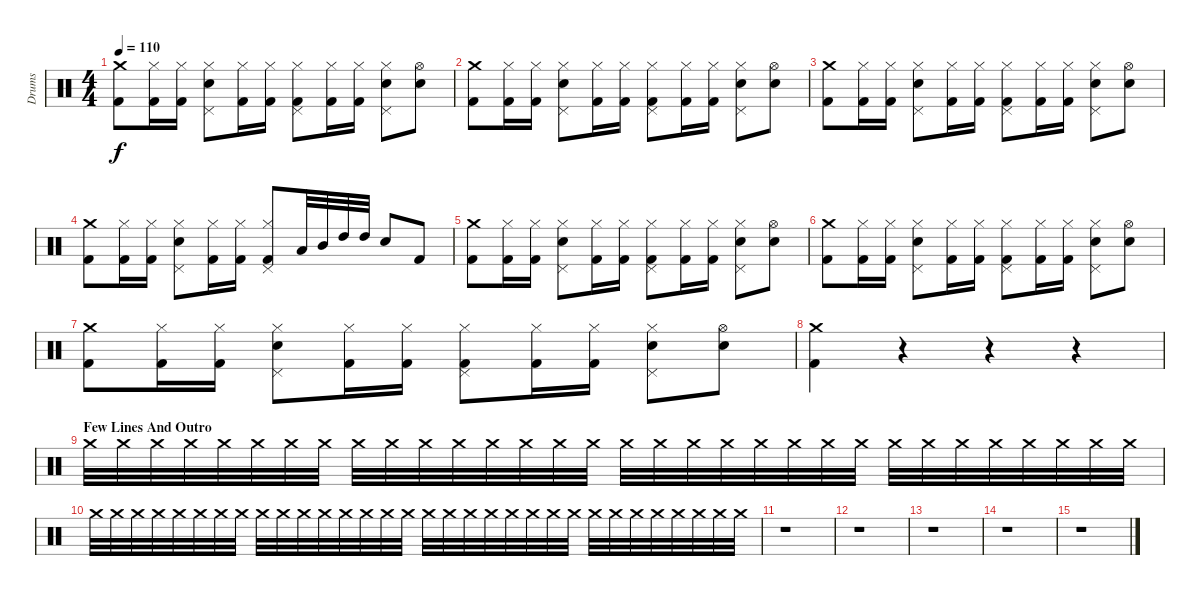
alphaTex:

\track ("Drums" "Drums") {instrument percussion}
\staff {score}
\articulation defaults
\ts (4 4)
\tempo 110
\clef neutral
\ks c
("Crash medium (hit)" "Kick (hit) 2").8{dy f} ("Kick (hit) 2" "Hi-Hat (closed)").16 ("Kick (hit) 2" "Hi-Hat (closed)").16 ("Snare (hit) 2" "Pedal Hi-Hat (hit)" "Hi-Hat (closed)").8 ("Kick (hit) 2" "Hi-Hat (closed)").16 ("Kick (hit) 2" "Hi-Hat (closed)").16 ("Kick (hit) 2" "Pedal Hi-Hat (hit)" "Hi-Hat (closed)").8 ("Kick (hit) 2" "Hi-Hat (closed)").16 ("Kick (hit) 2" "Hi-Hat (closed)").16 ("Snare (hit) 2" "Pedal Hi-Hat (hit)" "Hi-Hat (closed)").8 ("Snare (hit) 2" "Hi-Hat (open)").8 |
("Crash medium (hit)" "Kick (hit) 2").8 ("Kick (hit) 2" "Hi-Hat (closed)").16 ("Kick (hit) 2" "Hi-Hat (closed)").16 ("Snare (hit) 2" "Pedal Hi-Hat (hit)" "Hi-Hat (closed)").8 ("Kick (hit) 2" "Hi-Hat (closed)").16 ("Kick (hit) 2" "Hi-Hat (closed)").16 ("Kick (hit) 2" "Pedal Hi-Hat (hit)" "Hi-Hat (closed)").8 ("Kick (hit) 2" "Hi-Hat (closed)").16 ("Kick (hit) 2" "Hi-Hat (closed)").16 ("Snare (hit) 2" "Pedal Hi-Hat (hit)" "Hi-Hat (closed)").8 ("Snare (hit) 2" "Hi-Hat (open)").8 |
("Crash medium (hit)" "Kick (hit) 2").8 ("Kick (hit) 2" "Hi-Hat (closed)").16 ("Kick (hit) 2" "Hi-Hat (closed)").16 ("Snare (hit) 2" "Pedal Hi-Hat (hit)" "Hi-Hat (closed)").8 ("Kick (hit) 2" "Hi-Hat (closed)").16 ("Kick (hit) 2" "Hi-Hat (closed)").16 ("Kick (hit) 2" "Pedal Hi-Hat (hit)" "Hi-Hat (closed)").8 ("Kick (hit) 2" "Hi-Hat (closed)").16 ("Kick (hit) 2" "Hi-Hat (closed)").16 ("Snare (hit) 2" "Pedal Hi-Hat (hit)" "Hi-Hat (closed)").8 ("Snare (hit) 2" "Hi-Hat (open)").8 |
("Crash medium (hit)" "Kick (hit) 2").8 ("Kick (hit) 2" "Hi-Hat (closed)").16 ("Kick (hit) 2" "Hi-Hat (closed)").16 ("Snare (hit) 2" "Pedal Hi-Hat (hit)" "Hi-Hat (closed)").8 ("Kick (hit) 2" "Hi-Hat (closed)").16 ("Kick (hit) 2" "Hi-Hat (closed)").16 ("Kick (hit) 2" "Pedal Hi-Hat (hit)" "Hi-Hat (closed)").8 "Low Tom (hit)".32 "Mid Tom (hit)".32 "High Tom (hit)".32 "High Tom (hit)".32 "Snare (hit) 2".8 "Kick (hit) 2".8 |
("Crash medium (hit)" "Kick (hit) 2").8 ("Kick (hit) 2" "Hi-Hat (closed)").16 ("Kick (hit) 2" "Hi-Hat (closed)").16 ("Snare (hit) 2" "Pedal Hi-Hat (hit)" "Hi-Hat (closed)").8 ("Kick (hit) 2" "Hi-Hat (closed)").16 ("Kick (hit) 2" "Hi-Hat (closed)").16 ("Kick (hit) 2" "Pedal Hi-Hat (hit)" "Hi-Hat (closed)").8 ("Kick (hit) 2" "Hi-Hat (closed)").16 ("Kick (hit) 2" "Hi-Hat (closed)").16 ("Snare (hit) 2" "Pedal Hi-Hat (hit)" "Hi-Hat (closed)").8 ("Snare (hit) 2" "Hi-Hat (open)").8 |
("Crash medium (hit)" "Kick (hit) 2").8 ("Kick (hit) 2" "Hi-Hat (closed)").16 ("Kick (hit) 2" "Hi-Hat (closed)").16 ("Snare (hit) 2" "Pedal Hi-Hat (hit)" "Hi-Hat (closed)").8 ("Kick (hit) 2" "Hi-Hat (closed)").16 ("Kick (hit) 2" "Hi-Hat (closed)").16 ("Kick (hit) 2" "Pedal Hi-Hat (hit)" "Hi-Hat (closed)").8 ("Kick (hit) 2" "Hi-Hat (closed)").16 ("Kick (hit) 2" "Hi-Hat (closed)").16 ("Snare (hit) 2" "Pedal Hi-Hat (hit)" "Hi-Hat (closed)").8 ("Snare (hit) 2" "Hi-Hat (open)").8 |
("Crash medium (hit)" "Kick (hit) 2").8 ("Kick (hit) 2" "Hi-Hat (closed)").16 ("Kick (hit) 2" "Hi-Hat (closed)").16 ("Snare (hit) 2" "Pedal Hi-Hat (hit)" "Hi-Hat (closed)").8 ("Kick (hit) 2" "Hi-Hat (closed)").16 ("Kick (hit) 2" "Hi-Hat (closed)").16 ("Kick (hit) 2" "Pedal Hi-Hat (hit)" "Hi-Hat (closed)").8 ("Kick (hit) 2" "Hi-Hat (closed)").16 ("Kick (hit) 2" "Hi-Hat (closed)").16 ("Snare (hit) 2" "Pedal Hi-Hat (hit)" "Hi-Hat (closed)").8 ("Snare (hit) 2" "Hi-Hat (open)").8 |
("Crash medium (hit)" "Kick (hit) 2").4 r.4 r.4 r.4{volume 0} |
\section ("" "Few Lines And Outro")
"Crash medium (hit)".32{volume 4 balance 8} "Crash medium (hit)".32 "Crash medium (hit)".32 "Crash medium (hit)".32 "Crash medium (hit)".32 "Crash medium (hit)".32 "Crash medium (hit)".32 "Crash medium (hit)".32 "Crash medium (hit)".32 "Crash medium (hit)".32 "Crash medium (hit)".32 "Crash medium (hit)".32 "Crash medium (hit)".32 "Crash medium (hit)".32 "Crash medium (hit)".32 "Crash medium (hit)".32 "Crash medium (hit)".32 "Crash medium (hit)".32 "Crash medium (hit)".32 "Crash medium (hit)".32 "Crash medium (hit)".32 "Crash medium (hit)".32 "Crash medium (hit)".32 "Crash medium (hit)".32 "Crash medium (hit)".32 "Crash medium (hit)".32 "Crash medium (hit)".32 "Crash medium (hit)".32 "Crash medium (hit)".32 "Crash medium (hit)".32 "Crash medium (hit)".32 "Crash medium (hit)".32 |
"Crash medium (hit)".32 "Crash medium (hit)".32 "Crash medium (hit)".32 "Crash medium (hit)".32 "Crash medium (hit)".32 "Crash medium (hit)".32 "Crash medium (hit)".32 "Crash medium (hit)".32 "Crash medium (hit)".32 "Crash medium (hit)".32 "Crash medium (hit)".32 "Crash medium (hit)".32 "Crash medium (hit)".32 "Crash medium (hit)".32 "Crash medium (hit)".32 "Crash medium (hit)".32 "Crash medium (hit)".32 "Crash medium (hit)".32 "Crash medium (hit)".32 "Crash medium (hit)".32 "Crash medium (hit)".32 "Crash medium (hit)".32 "Crash medium (hit)".32 "Crash medium (hit)".32 "Crash medium (hit)".32 "Crash medium (hit)".32 "Crash medium (hit)".32 "Crash medium (hit)".32 "Crash medium (hit)".32 "Crash medium (hit)".32 "Crash medium (hit)".32 "Crash medium (hit)".32 |
r.1 |
r.1 |
r.1 |
r.1 |
r.1
